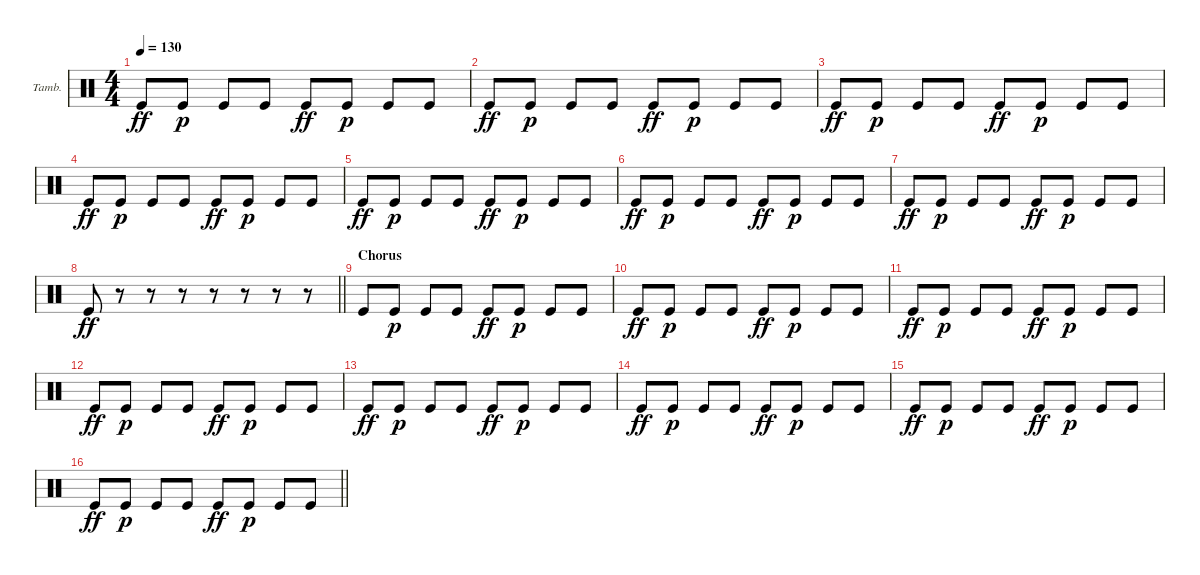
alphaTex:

\bracketExtendMode groupsimilarinstruments
\firstSystemTrackNameOrientation horizontal
\otherSystemsTrackNameOrientation horizontal
\track ("Tambourine" "Tamb.") {instrument percussion}
\staff {score}
\articulation defaults
\ts (4 4)
\tempo 130
\clef neutral
\ks c "Kick (hit)".8{dy ff} "Kick (hit)".8{dy p} "Kick (hit)".8 "Kick (hit)".8 "Kick (hit)".8{dy ff} "Kick (hit)".8{dy p} "Kick (hit)".8 "Kick (hit)".8
|
"Kick (hit)".8{dy ff} "Kick (hit)".8{dy p} "Kick (hit)".8 "Kick (hit)".8 "Kick (hit)".8{dy ff} "Kick (hit)".8{dy p} "Kick (hit)".8 "Kick (hit)".8 |
"Kick (hit)".8{dy ff} "Kick (hit)".8{dy p} "Kick (hit)".8 "Kick (hit)".8 "Kick (hit)".8{dy ff} "Kick (hit)".8{dy p} "Kick (hit)".8 "Kick (hit)".8 |
"Kick (hit)".8{dy ff} "Kick (hit)".8{dy p} "Kick (hit)".8 "Kick (hit)".8 "Kick (hit)".8{dy ff} "Kick (hit)".8{dy p} "Kick (hit)".8 "Kick (hit)".8 |
"Kick (hit)".8{dy ff} "Kick (hit)".8{dy p} "Kick (hit)".8 "Kick (hit)".8 "Kick (hit)".8{dy ff} "Kick (hit)".8{dy p} "Kick (hit)".8 "Kick (hit)".8 |
"Kick (hit)".8{dy ff} "Kick (hit)".8{dy p} "Kick (hit)".8 "Kick (hit)".8 "Kick (hit)".8{dy ff} "Kick (hit)".8{dy p} "Kick (hit)".8 "Kick (hit)".8 |
"Kick (hit)".8{dy ff} "Kick (hit)".8{dy p} "Kick (hit)".8 "Kick (hit)".8 "Kick (hit)".8{dy ff} "Kick (hit)".8{dy p} "Kick (hit)".8 "Kick (hit)".8 |
\barLineRight lightlight "Kick (hit)".8{dy ff}
r.8 r.8 r.8 r.8 r.8 r.8 r.8 |
\section ("" "Chorus")
"Kick (hit)".8 "Kick (hit)".8{dy p} "Kick (hit)".8 "Kick (hit)".8 "Kick (hit)".8{dy ff} "Kick (hit)".8{dy p} "Kick (hit)".8 "Kick (hit)".8 |
"Kick (hit)".8{dy ff} "Kick (hit)".8{dy p} "Kick (hit)".8 "Kick (hit)".8 "Kick (hit)".8{dy ff} "Kick (hit)".8{dy p} "Kick (hit)".8 "Kick (hit)".8 |
"Kick (hit)".8{dy ff} "Kick (hit)".8{dy p} "Kick (hit)".8 "Kick (hit)".8 "Kick (hit)".8{dy ff} "Kick (hit)".8{dy p} "Kick (hit)".8 "Kick (hit)".8 |
"Kick (hit)".8{dy ff} "Kick (hit)".8{dy p} "Kick (hit)".8 "Kick (hit)".8 "Kick (hit)".8{dy ff} "Kick (hit)".8{dy p} "Kick (hit)".8 "Kick (hit)".8 |
"Kick (hit)".8{dy ff} "Kick (hit)".8{dy p} "Kick (hit)".8 "Kick (hit)".8 "Kick (hit)".8{dy ff} "Kick (hit)".8{dy p} "Kick (hit)".8 "Kick (hit)".8 |
"Kick (hit)".8{dy ff} "Kick (hit)".8{dy p} "Kick (hit)".8 "Kick (hit)".8 "Kick (hit)".8{dy ff} "Kick (hit)".8{dy p} "Kick (hit)".8 "Kick (hit)".8 |
"Kick (hit)".8{dy ff} "Kick (hit)".8{dy p} "Kick (hit)".8 "Kick (hit)".8 "Kick (hit)".8{dy ff} "Kick (hit)".8{dy p} "Kick (hit)".8 "Kick (hit)".8 |
\barLineRight lightlight "Kick (hit)".8{dy ff} "Kick (hit)".8{dy p} "Kick (hit)".8 "Kick (hit)".8 "Kick (hit)".8{dy ff} "Kick (hit)".8{dy p} "Kick (hit)".8 "Kick (hit)".8
